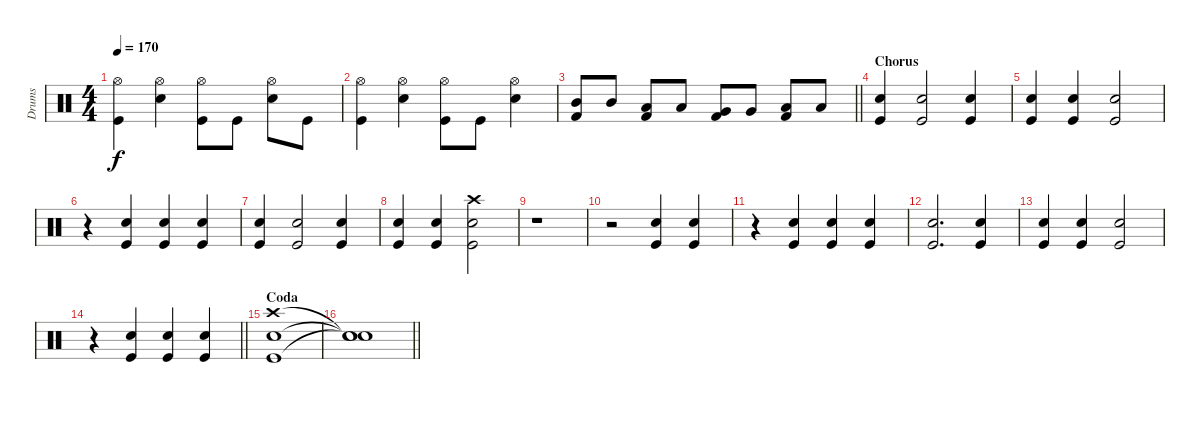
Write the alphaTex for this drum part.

\track ("Drums" "Drums") {instrument percussion}
\staff {score}
\articulation defaults
\ts (4 4)
\tempo 170
\clef neutral
\ks c
("Hi-Hat (open)" "Kick (hit)").4{dy f} ("Hi-Hat (open)" "Electric Snare (hit)").4 ("Hi-Hat (open)" "Kick (hit)").8 "Kick (hit)".8 ("Hi-Hat (open)" "Electric Snare (hit)").8 "Kick (hit)".8 |
("Hi-Hat (open)" "Kick (hit)").4 ("Hi-Hat (open)" "Electric Snare (hit)").4 ("Hi-Hat (open)" "Kick (hit)").8 "Kick (hit)".8 ("Hi-Hat (open)" "Electric Snare (hit)").4 |
\barLineRight lightlight
("Mid Tom (hit)" "Kick (hit) 2").8 "Mid Tom (hit)".8 ("Low Tom (hit)" "Kick (hit) 2").8 "Low Tom (hit)".8 ("Very Low Tom (hit)" "Kick (hit) 2").8 "Very Low Tom (hit)".8 ("Low Floor Tom (hit)" "Kick (hit) 2").8 "Low Floor Tom (hit)".8 |
\section ("" "Chorus ")
("Electric Snare (hit)" "Kick (hit)").4 ("Electric Snare (hit)" "Kick (hit)").2 ("Electric Snare (hit)" "Kick (hit)").4 |
("Electric Snare (hit)" "Kick (hit)").4 ("Electric Snare (hit)" "Kick (hit)").4 ("Electric Snare (hit)" "Kick (hit)").2 |
r.4 ("Electric Snare (hit)" "Kick (hit)").4 ("Electric Snare (hit)" "Kick (hit)").4 ("Electric Snare (hit)" "Kick (hit)").4 |
("Electric Snare (hit)" "Kick (hit)").4 ("Electric Snare (hit)" "Kick (hit)").2 ("Electric Snare (hit)" "Kick (hit)").4 |
("Electric Snare (hit)" "Kick (hit)").4 ("Electric Snare (hit)" "Kick (hit)").4 ("Crash high (hit)" "Electric Snare (hit)" "Kick (hit)").2 |
r.1 |
r.2 ("Electric Snare (hit)" "Kick (hit)").4 ("Electric Snare (hit)" "Kick (hit)").4 |
r.4 ("Electric Snare (hit)" "Kick (hit)").4 ("Electric Snare (hit)" "Kick (hit)").4 ("Electric Snare (hit)" "Kick (hit)").4 |
("Electric Snare (hit)" "Kick (hit)").2{d} ("Electric Snare (hit)" "Kick (hit)").4 |
("Electric Snare (hit)" "Kick (hit)").4 ("Electric Snare (hit)" "Kick (hit)").4 ("Electric Snare (hit)" "Kick (hit)").2 |
\barLineRight lightlight
r.4 ("Electric Snare (hit)" "Kick (hit)").4 ("Electric Snare (hit)" "Kick (hit)").4 ("Electric Snare (hit)" "Kick (hit)").4 |
\section ("" "Coda")
("Crash high (hit)" "Electric Snare (hit)" "Kick (hit)").1 |
\barLineRight lightlight
("Snare (hit)"{t} "Snare (hit)"{t} "Snare (hit)"{t}).1
